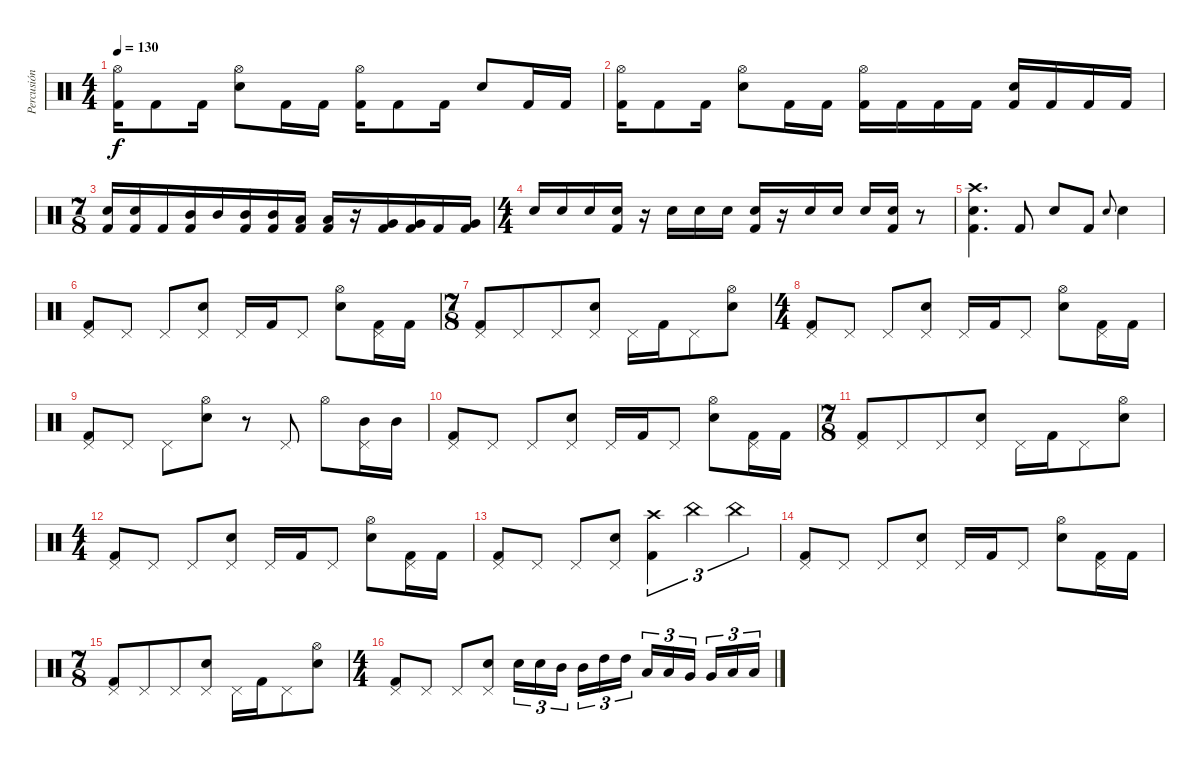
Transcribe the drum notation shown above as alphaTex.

\track ("Percusión" "Percusión") {instrument percussion}
\staff {score}
\articulation defaults
\ts (4 4)
\tempo 130
\clef neutral
\ks c
("Hi-Hat (open)" "Kick (hit) 2").16{dy f} "Kick (hit) 2".8 "Kick (hit) 2".16 ("Hi-Hat (open)" "Snare (hit) 2").8 "Kick (hit) 2".16 "Kick (hit) 2".16 ("Hi-Hat (open)" "Kick (hit) 2").16 "Kick (hit) 2".8 "Kick (hit) 2".16 "Snare (hit) 2".8 "Kick (hit) 2".16 "Kick (hit) 2".16 |
("Hi-Hat (open)" "Kick (hit) 2").16 "Kick (hit) 2".8 "Kick (hit) 2".16 ("Hi-Hat (open)" "Snare (hit) 2").8 "Kick (hit) 2".16 "Kick (hit) 2".16 ("Hi-Hat (open)" "Kick (hit) 2").16 "Kick (hit) 2".16 "Kick (hit) 2".16 "Kick (hit) 2".16 ("Snare (hit) 2" "Kick (hit) 2").16 "Kick (hit) 2".16 "Kick (hit) 2".16 "Kick (hit) 2".16 |
\ts (7 8)
("Snare (hit) 2" "Kick (hit) 2").16 ("Snare (hit) 2" "Kick (hit) 2").16 "Kick (hit) 2".16 ("Mid Tom (hit)" "Kick (hit) 2").16 "Mid Tom (hit)".16 ("Mid Tom (hit)" "Kick (hit) 2").16 ("Mid Tom (hit)" "Kick (hit) 2").16 ("Low Tom (hit)" "Kick (hit) 2").16 ("Low Tom (hit)" "Kick (hit) 2").16 r.16 ("Very Low Tom (hit)" "Kick (hit) 2").16 ("Very Low Tom (hit)" "Kick (hit) 2").16 "Kick (hit) 2".16 ("Very Low Tom (hit)" "Kick (hit) 2").16 |
\ts (4 4)
"Snare (hit) 2".16 "Snare (hit) 2".16 "Snare (hit) 2".16 ("Snare (hit) 2" "Kick (hit) 2").16 r.16 "Snare (hit) 2".16 "Snare (hit) 2".16 "Snare (hit) 2".16 ("Snare (hit) 2" "Kick (hit) 2").16 r.16 "Snare (hit) 2".16 "Snare (hit) 2".16 "Snare (hit) 2".16 ("Snare (hit) 2" "Kick (hit) 2").16 r.8 |
("Crash high (hit)" "Snare (hit) 2" "Kick (hit) 2").4{d} "Kick (hit) 2".8 "Snare (hit) 2".8 "Kick (hit) 2".8 "Snare (hit) 2".8{gr onbeat} "Snare (hit) 2".4 |
("Pedal Hi-Hat (hit)" "Kick (hit) 2").8 "Pedal Hi-Hat (hit)".8 "Pedal Hi-Hat (hit)".8 ("Pedal Hi-Hat (hit)" "Snare (hit) 2").8 "Pedal Hi-Hat (hit)".16 "Kick (hit) 2".16 "Pedal Hi-Hat (hit)".8 ("Hi-Hat (open)" "Snare (hit) 2").8 ("Pedal Hi-Hat (hit)" "Kick (hit) 2").16 "Kick (hit) 2".16 |
\ts (7 8)
("Pedal Hi-Hat (hit)" "Kick (hit) 2").8 "Pedal Hi-Hat (hit)".8 "Pedal Hi-Hat (hit)".8 ("Pedal Hi-Hat (hit)" "Snare (hit) 2").8 "Pedal Hi-Hat (hit)".16 "Kick (hit) 2".16 "Pedal Hi-Hat (hit)".8 ("Hi-Hat (open)" "Snare (hit) 2").8 |
\ts (4 4)
("Pedal Hi-Hat (hit)" "Kick (hit) 2").8 "Pedal Hi-Hat (hit)".8 "Pedal Hi-Hat (hit)".8 ("Pedal Hi-Hat (hit)" "Snare (hit) 2").8 "Pedal Hi-Hat (hit)".16 "Kick (hit) 2".16 "Pedal Hi-Hat (hit)".8 ("Hi-Hat (open)" "Snare (hit) 2").8 ("Pedal Hi-Hat (hit)" "Kick (hit) 2").16 "Kick (hit) 2".16 |
("Pedal Hi-Hat (hit)" "Kick (hit) 2").8 "Pedal Hi-Hat (hit)".8 "Pedal Hi-Hat (hit)".8 ("Hi-Hat (open)" "Snare (hit) 2").8 r.8 "Pedal Hi-Hat (hit)".8 "Hi-Hat (open)".8 ("Pedal Hi-Hat (hit)" "Mid Tom (hit)").16 "Mid Tom (hit)".16 |
("Pedal Hi-Hat (hit)" "Kick (hit) 2").8 "Pedal Hi-Hat (hit)".8 "Pedal Hi-Hat (hit)".8 ("Pedal Hi-Hat (hit)" "Snare (hit) 2").8 "Pedal Hi-Hat (hit)".16 "Kick (hit) 2".16 "Pedal Hi-Hat (hit)".8 ("Hi-Hat (open)" "Snare (hit) 2").8 ("Pedal Hi-Hat (hit)" "Kick (hit) 2").16 "Kick (hit) 2".16 |
\ts (7 8)
("Pedal Hi-Hat (hit)" "Kick (hit) 2").8 "Pedal Hi-Hat (hit)".8 "Pedal Hi-Hat (hit)".8 ("Pedal Hi-Hat (hit)" "Snare (hit) 2").8 "Pedal Hi-Hat (hit)".16 "Kick (hit) 2".16 "Pedal Hi-Hat (hit)".8 ("Hi-Hat (open)" "Snare (hit) 2").8 |
\ts (4 4)
("Pedal Hi-Hat (hit)" "Kick (hit) 2").8 "Pedal Hi-Hat (hit)".8 "Pedal Hi-Hat (hit)".8 ("Pedal Hi-Hat (hit)" "Snare (hit) 2").8 "Pedal Hi-Hat (hit)".16 "Kick (hit) 2".16 "Pedal Hi-Hat (hit)".8 ("Hi-Hat (open)" "Snare (hit) 2").8 ("Pedal Hi-Hat (hit)" "Kick (hit) 2").16 "Kick (hit) 2".16 |
("Pedal Hi-Hat (hit)" "Kick (hit) 2").8 "Pedal Hi-Hat (hit)".8 "Pedal Hi-Hat (hit)".8 ("Pedal Hi-Hat (hit)" "Snare (hit) 2").8 ("Crash high (hit)" "Kick (hit) 2").4{tu (3 2)} "China (hit)".4{tu (3 2)} "China (hit)".4{tu (3 2)} |
("Pedal Hi-Hat (hit)" "Kick (hit) 2").8 "Pedal Hi-Hat (hit)".8 "Pedal Hi-Hat (hit)".8 ("Pedal Hi-Hat (hit)" "Snare (hit) 2").8 "Pedal Hi-Hat (hit)".16 "Kick (hit) 2".16 "Pedal Hi-Hat (hit)".8 ("Hi-Hat (open)" "Snare (hit) 2").8 ("Pedal Hi-Hat (hit)" "Kick (hit) 2").16 "Kick (hit) 2".16 |
\ts (7 8)
("Pedal Hi-Hat (hit)" "Kick (hit) 2").8 "Pedal Hi-Hat (hit)".8 "Pedal Hi-Hat (hit)".8 ("Pedal Hi-Hat (hit)" "Snare (hit) 2").8 "Pedal Hi-Hat (hit)".16 "Kick (hit) 2".16 "Pedal Hi-Hat (hit)".8 ("Hi-Hat (open)" "Snare (hit) 2").8 |
\ts (4 4)
("Pedal Hi-Hat (hit)" "Kick (hit) 2").8 "Pedal Hi-Hat (hit)".8 "Pedal Hi-Hat (hit)".8 ("Pedal Hi-Hat (hit)" "Snare (hit) 2").8 "Snare (hit) 2".16{tu (3 2)} "Snare (hit) 2".16{tu (3 2)} "Mid Tom (hit)".16{tu (3 2) beam splitsecondary} "Mid Tom (hit)".16{tu (3 2)} "High Tom (hit)".16{tu (3 2)} "High Tom (hit)".16{tu (3 2)} "Low Tom (hit)".16{tu (3 2)} "Low Tom (hit)".16{tu (3 2)} "Very Low Tom (hit)".16{tu (3 2) beam splitsecondary} "Very Low Tom (hit)".16{tu (3 2)} "Low Floor Tom (hit)".16{tu (3 2)} "Low Floor Tom (hit)".16{tu (3 2)}
